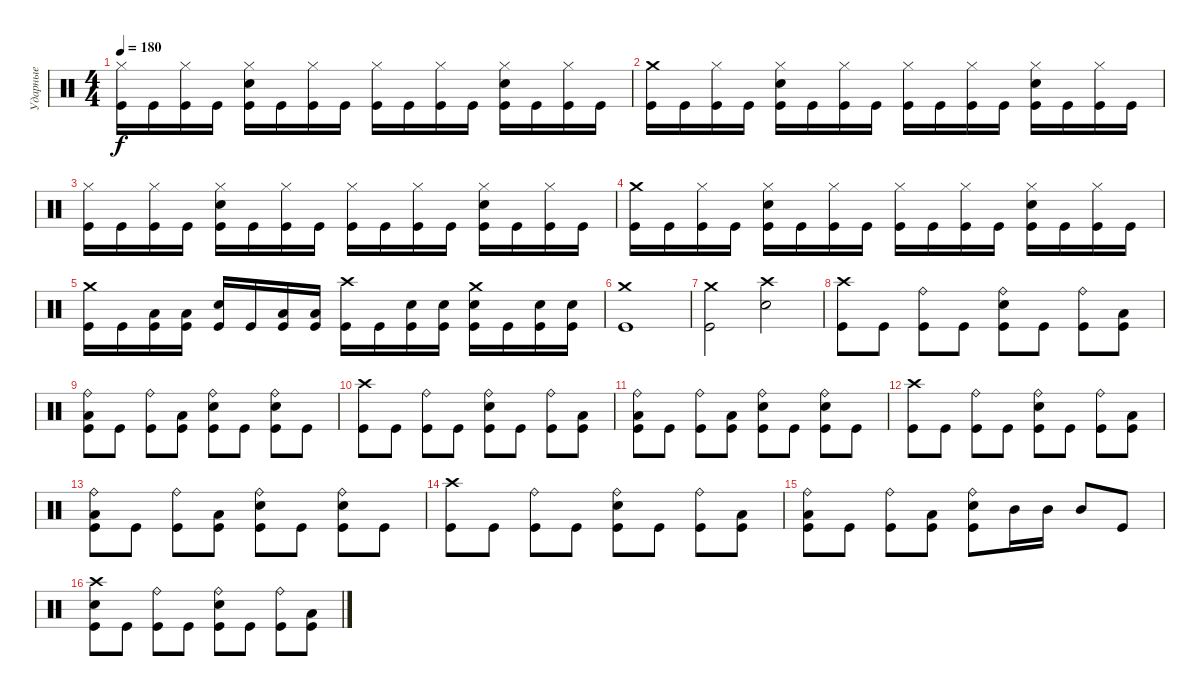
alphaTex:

\track ("Ударные" "Ударные") {instrument percussion}
\staff {score}
\articulation defaults
\ts (4 4)
\tempo 180
\clef neutral
\ks c
("Hi-Hat (closed)" "Kick (hit)").16{dy f} "Kick (hit)".16 ("Hi-Hat (closed)" "Kick (hit)").16 "Kick (hit)".16 ("Hi-Hat (closed)" "Electric Snare (hit)" "Kick (hit)").16 "Kick (hit)".16 ("Hi-Hat (closed)" "Kick (hit)").16 "Kick (hit)".16 ("Hi-Hat (closed)" "Kick (hit)").16 "Kick (hit)".16 ("Hi-Hat (closed)" "Kick (hit)").16 "Kick (hit)".16 ("Hi-Hat (closed)" "Electric Snare (hit)" "Kick (hit)").16 "Kick (hit)".16 ("Hi-Hat (closed)" "Kick (hit)").16 "Kick (hit)".16 |
("Crash medium (hit)" "Kick (hit)").16 "Kick (hit)".16 ("Hi-Hat (closed)" "Kick (hit)").16 "Kick (hit)".16 ("Hi-Hat (closed)" "Electric Snare (hit)" "Kick (hit)").16 "Kick (hit)".16 ("Hi-Hat (closed)" "Kick (hit)").16 "Kick (hit)".16 ("Hi-Hat (closed)" "Kick (hit)").16 "Kick (hit)".16 ("Hi-Hat (closed)" "Kick (hit)").16 "Kick (hit)".16 ("Hi-Hat (closed)" "Electric Snare (hit)" "Kick (hit)").16 "Kick (hit)".16 ("Hi-Hat (closed)" "Kick (hit)").16 "Kick (hit)".16 |
("Hi-Hat (closed)" "Kick (hit)").16 "Kick (hit)".16 ("Hi-Hat (closed)" "Kick (hit)").16 "Kick (hit)".16 ("Hi-Hat (closed)" "Electric Snare (hit)" "Kick (hit)").16 "Kick (hit)".16 ("Hi-Hat (closed)" "Kick (hit)").16 "Kick (hit)".16 ("Hi-Hat (closed)" "Kick (hit)").16 "Kick (hit)".16 ("Hi-Hat (closed)" "Kick (hit)").16 "Kick (hit)".16 ("Hi-Hat (closed)" "Electric Snare (hit)" "Kick (hit)").16 "Kick (hit)".16 ("Hi-Hat (closed)" "Kick (hit)").16 "Kick (hit)".16 |
("Crash medium (hit)" "Kick (hit)").16 "Kick (hit)".16 ("Hi-Hat (closed)" "Kick (hit)").16 "Kick (hit)".16 ("Hi-Hat (closed)" "Electric Snare (hit)" "Kick (hit)").16 "Kick (hit)".16 ("Hi-Hat (closed)" "Kick (hit)").16 "Kick (hit)".16 ("Hi-Hat (closed)" "Kick (hit)").16 "Kick (hit)".16 ("Hi-Hat (closed)" "Kick (hit)").16 "Kick (hit)".16 ("Hi-Hat (closed)" "Electric Snare (hit)" "Kick (hit)").16 "Kick (hit)".16 ("Hi-Hat (closed)" "Kick (hit)").16 "Kick (hit)".16 |
("Crash medium (hit)" "Kick (hit)").16 "Kick (hit)".16 ("Low Tom (hit)" "Kick (hit)").16 ("Low Tom (hit)" "Kick (hit)").16 ("Electric Snare (hit)" "Kick (hit)").16 "Kick (hit)".16 ("Low Tom (hit)" "Kick (hit)").16 ("Low Tom (hit)" "Kick (hit)").16 ("Crash high (hit)" "Kick (hit)").16 "Kick (hit)".16 ("Electric Snare (hit)" "Kick (hit)").16 ("Electric Snare (hit)" "Kick (hit)").16 ("Crash medium (hit)" "Electric Snare (hit)" "Kick (hit)").16 "Kick (hit)".16 ("Electric Snare (hit)" "Kick (hit)").16 ("Electric Snare (hit)" "Kick (hit)").16 |
("Crash medium (hit)" "Kick (hit)").1 |
("Crash medium (hit)" "Kick (hit)").2 ("Crash high (hit)" "Electric Snare (hit)").2 |
("Crash high (hit)" "Kick (hit)").8 "Kick (hit)".8 ("Ride (bell)" "Kick (hit)").8 "Kick (hit)".8 ("Ride (bell)" "Electric Snare (hit)" "Kick (hit)").8 "Kick (hit)".8 ("Ride (bell)" "Kick (hit)").8 ("Low Tom (hit)" "Kick (hit)").8 |
("Ride (bell)" "Low Tom (hit)" "Kick (hit)").8 "Kick (hit)".8 ("Ride (bell)" "Kick (hit)").8 ("Low Tom (hit)" "Kick (hit)").8 ("Ride (bell)" "Electric Snare (hit)" "Kick (hit)").8 "Kick (hit)".8 ("Ride (bell)" "Electric Snare (hit)" "Kick (hit)").8 "Kick (hit)".8 |
("Crash high (hit)" "Kick (hit)").8 "Kick (hit)".8 ("Ride (bell)" "Kick (hit)").8 "Kick (hit)".8 ("Ride (bell)" "Electric Snare (hit)" "Kick (hit)").8 "Kick (hit)".8 ("Ride (bell)" "Kick (hit)").8 ("Low Tom (hit)" "Kick (hit)").8 |
("Ride (bell)" "Low Tom (hit)" "Kick (hit)").8 "Kick (hit)".8 ("Ride (bell)" "Kick (hit)").8 ("Low Tom (hit)" "Kick (hit)").8 ("Ride (bell)" "Electric Snare (hit)" "Kick (hit)").8 "Kick (hit)".8 ("Ride (bell)" "Electric Snare (hit)" "Kick (hit)").8 "Kick (hit)".8 |
("Crash high (hit)" "Kick (hit)").8 "Kick (hit)".8 ("Ride (bell)" "Kick (hit)").8 "Kick (hit)".8 ("Ride (bell)" "Electric Snare (hit)" "Kick (hit)").8 "Kick (hit)".8 ("Ride (bell)" "Kick (hit)").8 ("Low Tom (hit)" "Kick (hit)").8 |
("Ride (bell)" "Low Tom (hit)" "Kick (hit)").8 "Kick (hit)".8 ("Ride (bell)" "Kick (hit)").8 ("Low Tom (hit)" "Kick (hit)").8 ("Ride (bell)" "Electric Snare (hit)" "Kick (hit)").8 "Kick (hit)".8 ("Ride (bell)" "Electric Snare (hit)" "Kick (hit)").8 "Kick (hit)".8 |
("Crash high (hit)" "Kick (hit)").8 "Kick (hit)".8 ("Ride (bell)" "Kick (hit)").8 "Kick (hit)".8 ("Ride (bell)" "Electric Snare (hit)" "Kick (hit)").8 "Kick (hit)".8 ("Ride (bell)" "Kick (hit)").8 ("Low Tom (hit)" "Kick (hit)").8 |
("Ride (bell)" "Low Tom (hit)" "Kick (hit)").8 "Kick (hit)".8 ("Ride (bell)" "Kick (hit)").8 ("Low Tom (hit)" "Kick (hit)").8 ("Ride (bell)" "Electric Snare (hit)" "Kick (hit)").8 "Mid Tom (hit)".16 "Mid Tom (hit)".16 "Mid Tom (hit)".8 "Kick (hit)".8 |
("Crash high (hit)" "Electric Snare (hit)" "Kick (hit)").8 "Kick (hit)".8 ("Ride (bell)" "Kick (hit)").8 "Kick (hit)".8 ("Ride (bell)" "Electric Snare (hit)" "Kick (hit)").8 "Kick (hit)".8 ("Ride (bell)" "Kick (hit)").8 ("Low Tom (hit)" "Kick (hit)").8
